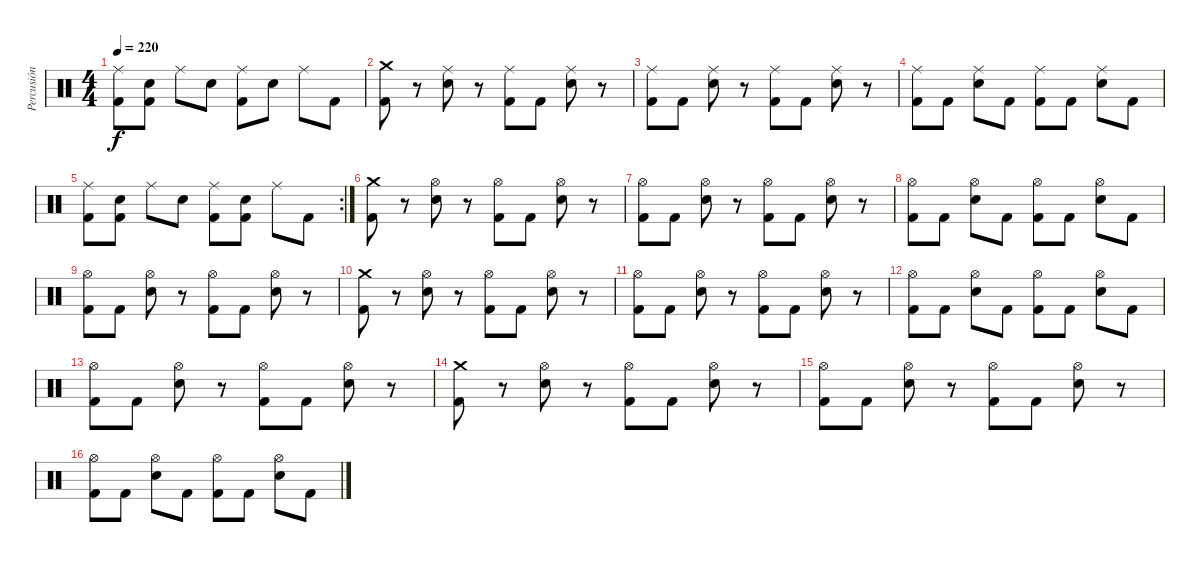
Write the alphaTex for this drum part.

\track ("Percusión" "Percusión") {instrument percussion}
\staff {score}
\articulation defaults
\ts (4 4)
\tempo 220
\clef neutral
\ks c
("Ride (middle)" "Kick (hit) 2").8{dy f} ("Electric Snare (hit)" "Kick (hit) 2").8 "Ride (middle)".8 "Electric Snare (hit)".8 ("Ride (middle)" "Kick (hit) 2").8 "Electric Snare (hit)".8 "Ride (middle)".8 "Kick (hit) 2".8 |
("Crash medium (hit)" "Kick (hit) 2").8 r.8 ("Ride (middle)" "Electric Snare (hit)").8 r.8 ("Ride (middle)" "Kick (hit) 2").8 "Kick (hit) 2".8 ("Ride (middle)" "Electric Snare (hit)").8 r.8 |
("Ride (middle)" "Kick (hit) 2").8 "Kick (hit) 2".8 ("Ride (middle)" "Electric Snare (hit)").8 r.8 ("Ride (middle)" "Kick (hit) 2").8 "Kick (hit) 2".8 ("Ride (middle)" "Electric Snare (hit)").8 r.8 |
("Ride (middle)" "Kick (hit) 2").8 "Kick (hit) 2".8 ("Ride (middle)" "Electric Snare (hit)").8 "Kick (hit) 2".8 ("Ride (middle)" "Kick (hit) 2").8 "Kick (hit) 2".8 ("Ride (middle)" "Electric Snare (hit)").8 "Kick (hit) 2".8 |
\rc 2
("Ride (middle)" "Kick (hit) 2").8 ("Electric Snare (hit)" "Kick (hit) 2").8 "Ride (middle)".8 "Electric Snare (hit)".8 ("Ride (middle)" "Kick (hit) 2").8 ("Electric Snare (hit)" "Kick (hit) 2").8 "Ride (middle)".8 "Kick (hit) 2".8 |
("Crash medium (hit)" "Kick (hit) 2").8 r.8 ("Hi-Hat (open)" "Electric Snare (hit)").8 r.8 ("Hi-Hat (open)" "Kick (hit) 2").8 "Kick (hit) 2".8 ("Hi-Hat (open)" "Electric Snare (hit)").8 r.8 |
("Hi-Hat (open)" "Kick (hit) 2").8 "Kick (hit) 2".8 ("Hi-Hat (open)" "Electric Snare (hit)").8 r.8 ("Hi-Hat (open)" "Kick (hit) 2").8 "Kick (hit) 2".8 ("Hi-Hat (open)" "Electric Snare (hit)").8 r.8 |
("Hi-Hat (open)" "Kick (hit) 2").8 "Kick (hit) 2".8 ("Hi-Hat (open)" "Electric Snare (hit)").8 "Kick (hit) 2".8 ("Hi-Hat (open)" "Kick (hit) 2").8 "Kick (hit) 2".8 ("Hi-Hat (open)" "Electric Snare (hit)").8 "Kick (hit) 2".8 |
("Hi-Hat (open)" "Kick (hit) 2").8 "Kick (hit) 2".8 ("Hi-Hat (open)" "Electric Snare (hit)").8 r.8 ("Hi-Hat (open)" "Kick (hit) 2").8 "Kick (hit) 2".8 ("Hi-Hat (open)" "Electric Snare (hit)").8 r.8 |
("Crash medium (hit)" "Kick (hit) 2").8 r.8 ("Hi-Hat (open)" "Electric Snare (hit)").8 r.8 ("Hi-Hat (open)" "Kick (hit) 2").8 "Kick (hit) 2".8 ("Hi-Hat (open)" "Electric Snare (hit)").8 r.8 |
("Hi-Hat (open)" "Kick (hit) 2").8 "Kick (hit) 2".8 ("Hi-Hat (open)" "Electric Snare (hit)").8 r.8 ("Hi-Hat (open)" "Kick (hit) 2").8 "Kick (hit) 2".8 ("Hi-Hat (open)" "Electric Snare (hit)").8 r.8 |
("Hi-Hat (open)" "Kick (hit) 2").8 "Kick (hit) 2".8 ("Hi-Hat (open)" "Electric Snare (hit)").8 "Kick (hit) 2".8 ("Hi-Hat (open)" "Kick (hit) 2").8 "Kick (hit) 2".8 ("Hi-Hat (open)" "Electric Snare (hit)").8 "Kick (hit) 2".8 |
("Hi-Hat (open)" "Kick (hit) 2").8 "Kick (hit) 2".8 ("Hi-Hat (open)" "Electric Snare (hit)").8 r.8 ("Hi-Hat (open)" "Kick (hit) 2").8 "Kick (hit) 2".8 ("Hi-Hat (open)" "Electric Snare (hit)").8 r.8 |
("Crash medium (hit)" "Kick (hit) 2").8 r.8 ("Hi-Hat (open)" "Electric Snare (hit)").8 r.8 ("Hi-Hat (open)" "Kick (hit) 2").8 "Kick (hit) 2".8 ("Hi-Hat (open)" "Electric Snare (hit)").8 r.8 |
("Hi-Hat (open)" "Kick (hit) 2").8 "Kick (hit) 2".8 ("Hi-Hat (open)" "Electric Snare (hit)").8 r.8 ("Hi-Hat (open)" "Kick (hit) 2").8 "Kick (hit) 2".8 ("Hi-Hat (open)" "Electric Snare (hit)").8 r.8 |
("Hi-Hat (open)" "Kick (hit) 2").8 "Kick (hit) 2".8 ("Hi-Hat (open)" "Electric Snare (hit)").8 "Kick (hit) 2".8 ("Hi-Hat (open)" "Kick (hit) 2").8 "Kick (hit) 2".8 ("Hi-Hat (open)" "Electric Snare (hit)").8 "Kick (hit) 2".8
